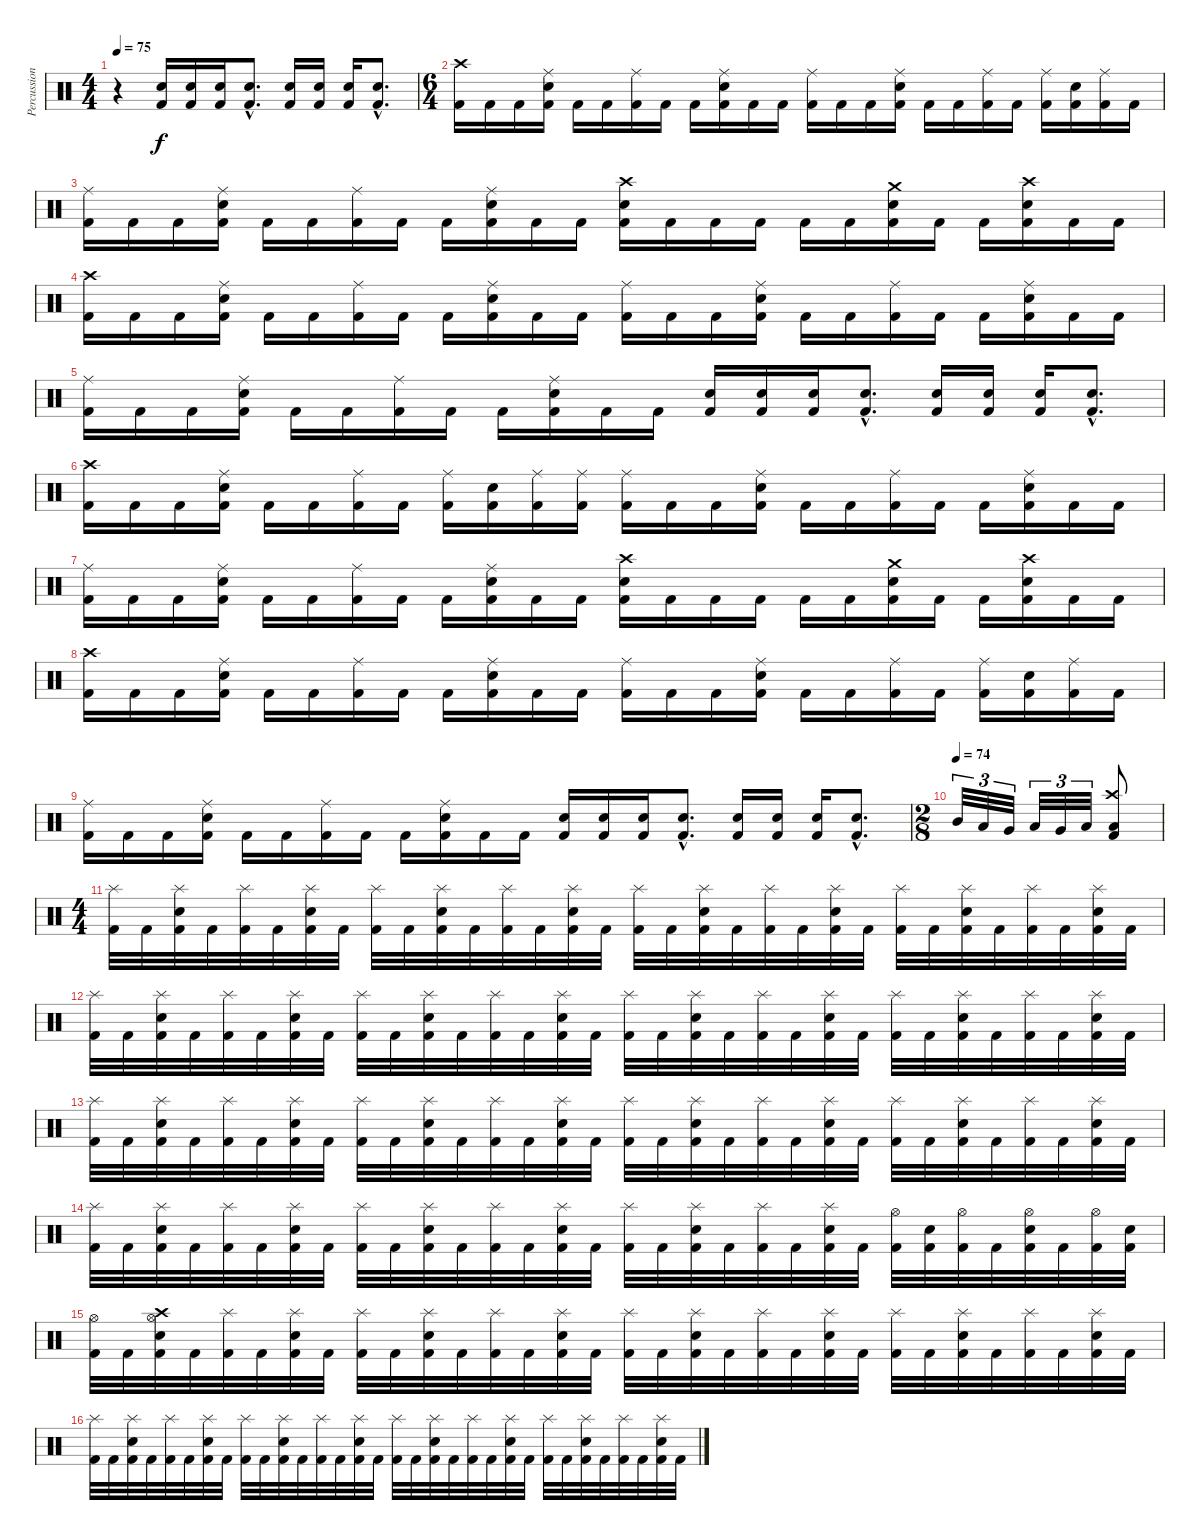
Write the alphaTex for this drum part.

\track ("Percussion" "Percussion") {instrument percussion}
\staff {score}
\articulation defaults
\ts (4 4)
\tempo 75
\tempo 140
\tempo 75
\clef neutral
\ks c
r.4{dy f} ("Snare (hit) 2" "Kick (hit) 2").16 ("Snare (hit) 2" "Kick (hit) 2").16 ("Snare (hit) 2" "Kick (hit) 2").16 ("Snare (hit) 2"{hac} "Kick (hit) 2"{hac}).8{d} ("Snare (hit) 2" "Kick (hit) 2").16 ("Snare (hit) 2" "Kick (hit) 2").16 ("Snare (hit) 2" "Kick (hit) 2").16 ("Snare (hit) 2"{hac} "Kick (hit) 2"{hac}).8{d} |
\ts (6 4)
("Crash high (hit)" "Kick (hit) 2").16 "Kick (hit) 2".16 "Kick (hit) 2".16 ("Ride (middle)" "Snare (hit) 2" "Kick (hit) 2").16 "Kick (hit) 2".16 "Kick (hit) 2".16 ("Ride (middle)" "Kick (hit) 2").16 "Kick (hit) 2".16 "Kick (hit) 2".16 ("Ride (middle)" "Snare (hit) 2" "Kick (hit) 2").16 "Kick (hit) 2".16 "Kick (hit) 2".16 ("Ride (middle)" "Kick (hit) 2").16 "Kick (hit) 2".16 "Kick (hit) 2".16 ("Ride (middle)" "Snare (hit) 2" "Kick (hit) 2").16 "Kick (hit) 2".16 "Kick (hit) 2".16 ("Ride (middle)" "Kick (hit) 2").16 "Kick (hit) 2".16 ("Ride (middle)" "Kick (hit) 2").16 ("Snare (hit) 2" "Kick (hit) 2").16 ("Ride (middle)" "Kick (hit) 2").16 "Kick (hit) 2".16 |
("Ride (middle)" "Kick (hit) 2").16 "Kick (hit) 2".16 "Kick (hit) 2".16 ("Ride (middle)" "Snare (hit) 2" "Kick (hit) 2").16 "Kick (hit) 2".16 "Kick (hit) 2".16 ("Ride (middle)" "Kick (hit) 2").16 "Kick (hit) 2".16 "Kick (hit) 2".16 ("Ride (middle)" "Snare (hit) 2" "Kick (hit) 2").16 "Kick (hit) 2".16 "Kick (hit) 2".16 ("Crash high (hit)" "Snare (hit) 2" "Kick (hit) 2").16 "Kick (hit) 2".16 "Kick (hit) 2".16 "Kick (hit) 2".16 "Kick (hit) 2".16 "Kick (hit) 2".16 ("Crash medium (hit)" "Snare (hit) 2" "Kick (hit) 2").16 "Kick (hit) 2".16 "Kick (hit) 2".16 ("Crash high (hit)" "Snare (hit) 2" "Kick (hit) 2").16 "Kick (hit) 2".16 "Kick (hit) 2".16 |
("Crash high (hit)" "Kick (hit) 2").16 "Kick (hit) 2".16 "Kick (hit) 2".16 ("Ride (middle)" "Snare (hit) 2" "Kick (hit) 2").16 "Kick (hit) 2".16 "Kick (hit) 2".16 ("Ride (middle)" "Kick (hit) 2").16 "Kick (hit) 2".16 "Kick (hit) 2".16 ("Ride (middle)" "Snare (hit) 2" "Kick (hit) 2").16 "Kick (hit) 2".16 "Kick (hit) 2".16 ("Ride (middle)" "Kick (hit) 2").16 "Kick (hit) 2".16 "Kick (hit) 2".16 ("Ride (middle)" "Snare (hit) 2" "Kick (hit) 2").16 "Kick (hit) 2".16 "Kick (hit) 2".16 ("Ride (middle)" "Kick (hit) 2").16 "Kick (hit) 2".16 "Kick (hit) 2".16 ("Ride (middle)" "Snare (hit) 2" "Kick (hit) 2").16 "Kick (hit) 2".16 "Kick (hit) 2".16 |
("Ride (middle)" "Kick (hit) 2").16 "Kick (hit) 2".16 "Kick (hit) 2".16 ("Ride (middle)" "Snare (hit) 2" "Kick (hit) 2").16 "Kick (hit) 2".16 "Kick (hit) 2".16 ("Ride (middle)" "Kick (hit) 2").16 "Kick (hit) 2".16 "Kick (hit) 2".16 ("Ride (middle)" "Snare (hit) 2" "Kick (hit) 2").16 "Kick (hit) 2".16 "Kick (hit) 2".16 ("Snare (hit) 2" "Kick (hit) 2").16 ("Snare (hit) 2" "Kick (hit) 2").16 ("Snare (hit) 2" "Kick (hit) 2").16 ("Snare (hit) 2"{hac} "Kick (hit) 2"{hac}).8{d} ("Snare (hit) 2" "Kick (hit) 2").16 ("Snare (hit) 2" "Kick (hit) 2").16 ("Snare (hit) 2" "Kick (hit) 2").16 ("Snare (hit) 2"{hac} "Kick (hit) 2"{hac}).8{d} |
("Crash high (hit)" "Kick (hit) 2").16 "Kick (hit) 2".16 "Kick (hit) 2".16 ("Ride (middle)" "Snare (hit) 2" "Kick (hit) 2").16 "Kick (hit) 2".16 "Kick (hit) 2".16 ("Ride (middle)" "Kick (hit) 2").16 "Kick (hit) 2".16 ("Ride (middle)" "Kick (hit) 2").16 ("Snare (hit) 2" "Kick (hit) 2").16 ("Ride (middle)" "Kick (hit) 2").16 ("Ride (middle)" "Kick (hit) 2").16 ("Ride (middle)" "Kick (hit) 2").16 "Kick (hit) 2".16 "Kick (hit) 2".16 ("Ride (middle)" "Snare (hit) 2" "Kick (hit) 2").16 "Kick (hit) 2".16 "Kick (hit) 2".16 ("Ride (middle)" "Kick (hit) 2").16 "Kick (hit) 2".16 "Kick (hit) 2".16 ("Ride (middle)" "Snare (hit) 2" "Kick (hit) 2").16 "Kick (hit) 2".16 "Kick (hit) 2".16 |
("Ride (middle)" "Kick (hit) 2").16 "Kick (hit) 2".16 "Kick (hit) 2".16 ("Ride (middle)" "Snare (hit) 2" "Kick (hit) 2").16 "Kick (hit) 2".16 "Kick (hit) 2".16 ("Ride (middle)" "Kick (hit) 2").16 "Kick (hit) 2".16 "Kick (hit) 2".16 ("Ride (middle)" "Snare (hit) 2" "Kick (hit) 2").16 "Kick (hit) 2".16 "Kick (hit) 2".16 ("Crash high (hit)" "Snare (hit) 2" "Kick (hit) 2").16 "Kick (hit) 2".16 "Kick (hit) 2".16 "Kick (hit) 2".16 "Kick (hit) 2".16 "Kick (hit) 2".16 ("Crash medium (hit)" "Snare (hit) 2" "Kick (hit) 2").16 "Kick (hit) 2".16 "Kick (hit) 2".16 ("Crash high (hit)" "Snare (hit) 2" "Kick (hit) 2").16 "Kick (hit) 2".16 "Kick (hit) 2".16 |
("Crash high (hit)" "Kick (hit) 2").16 "Kick (hit) 2".16 "Kick (hit) 2".16 ("Ride (middle)" "Snare (hit) 2" "Kick (hit) 2").16 "Kick (hit) 2".16 "Kick (hit) 2".16 ("Ride (middle)" "Kick (hit) 2").16 "Kick (hit) 2".16 "Kick (hit) 2".16 ("Ride (middle)" "Snare (hit) 2" "Kick (hit) 2").16 "Kick (hit) 2".16 "Kick (hit) 2".16 ("Ride (middle)" "Kick (hit) 2").16 "Kick (hit) 2".16 "Kick (hit) 2".16 ("Ride (middle)" "Snare (hit) 2" "Kick (hit) 2").16 "Kick (hit) 2".16 "Kick (hit) 2".16 ("Ride (middle)" "Kick (hit) 2").16 "Kick (hit) 2".16 ("Ride (middle)" "Kick (hit) 2").16 ("Snare (hit) 2" "Kick (hit) 2").16 ("Ride (middle)" "Kick (hit) 2").16 "Kick (hit) 2".16 |
("Ride (middle)" "Kick (hit) 2").16 "Kick (hit) 2".16 "Kick (hit) 2".16 ("Ride (middle)" "Snare (hit) 2" "Kick (hit) 2").16 "Kick (hit) 2".16 "Kick (hit) 2".16 ("Ride (middle)" "Kick (hit) 2").16 "Kick (hit) 2".16 "Kick (hit) 2".16 ("Ride (middle)" "Snare (hit) 2" "Kick (hit) 2").16 "Kick (hit) 2".16 "Kick (hit) 2".16 ("Snare (hit) 2" "Kick (hit) 2").16 ("Snare (hit) 2" "Kick (hit) 2").16 ("Snare (hit) 2" "Kick (hit) 2").16 ("Snare (hit) 2"{hac} "Kick (hit) 2"{hac}).8{d} ("Snare (hit) 2" "Kick (hit) 2").16 ("Snare (hit) 2" "Kick (hit) 2").16 ("Snare (hit) 2" "Kick (hit) 2").16 ("Snare (hit) 2"{hac} "Kick (hit) 2"{hac}).8{d} |
\ts (2 8)
\tempo (74)
"Mid Tom (hit)".32{tu (3 2)} "Low Tom (hit)".32{tu (3 2)} "Very Low Tom (hit)".32{tu (3 2)} "Low Tom (hit)".32{tu (3 2)} "Very Low Tom (hit)".32{tu (3 2)} "Low Floor Tom (hit)".32{tu (3 2)} ("Crash high (hit)" "Low Floor Tom (hit)" "Kick (hit) 2").8 |
\ts (4 4)
("Splash (hit)" "Kick (hit) 2").32 "Kick (hit) 2".32 ("Splash (hit)" "Snare (hit) 2" "Kick (hit) 2").32 "Kick (hit) 2".32 ("Splash (hit)" "Kick (hit) 2").32 "Kick (hit) 2".32 ("Splash (hit)" "Snare (hit) 2" "Kick (hit) 2").32 "Kick (hit) 2".32 ("Splash (hit)" "Kick (hit) 2").32 "Kick (hit) 2".32 ("Splash (hit)" "Snare (hit) 2" "Kick (hit) 2").32 "Kick (hit) 2".32 ("Splash (hit)" "Kick (hit) 2").32 "Kick (hit) 2".32 ("Splash (hit)" "Snare (hit) 2" "Kick (hit) 2").32 "Kick (hit) 2".32 ("Splash (hit)" "Kick (hit) 2").32 "Kick (hit) 2".32 ("Splash (hit)" "Snare (hit) 2" "Kick (hit) 2").32 "Kick (hit) 2".32 ("Splash (hit)" "Kick (hit) 2").32 "Kick (hit) 2".32 ("Splash (hit)" "Snare (hit) 2" "Kick (hit) 2").32 "Kick (hit) 2".32 ("Splash (hit)" "Kick (hit) 2").32 "Kick (hit) 2".32 ("Splash (hit)" "Snare (hit) 2" "Kick (hit) 2").32 "Kick (hit) 2".32 ("Splash (hit)" "Kick (hit) 2").32 "Kick (hit) 2".32 ("Splash (hit)" "Snare (hit) 2" "Kick (hit) 2").32 "Kick (hit) 2".32 |
("Splash (hit)" "Kick (hit) 2").32 "Kick (hit) 2".32 ("Splash (hit)" "Snare (hit) 2" "Kick (hit) 2").32 "Kick (hit) 2".32 ("Splash (hit)" "Kick (hit) 2").32 "Kick (hit) 2".32 ("Splash (hit)" "Snare (hit) 2" "Kick (hit) 2").32 "Kick (hit) 2".32 ("Splash (hit)" "Kick (hit) 2").32 "Kick (hit) 2".32 ("Splash (hit)" "Snare (hit) 2" "Kick (hit) 2").32 "Kick (hit) 2".32 ("Splash (hit)" "Kick (hit) 2").32 "Kick (hit) 2".32 ("Splash (hit)" "Snare (hit) 2" "Kick (hit) 2").32 "Kick (hit) 2".32 ("Splash (hit)" "Kick (hit) 2").32 "Kick (hit) 2".32 ("Splash (hit)" "Snare (hit) 2" "Kick (hit) 2").32 "Kick (hit) 2".32 ("Splash (hit)" "Kick (hit) 2").32 "Kick (hit) 2".32 ("Splash (hit)" "Snare (hit) 2" "Kick (hit) 2").32 "Kick (hit) 2".32 ("Splash (hit)" "Kick (hit) 2").32 "Kick (hit) 2".32 ("Splash (hit)" "Snare (hit) 2" "Kick (hit) 2").32 "Kick (hit) 2".32 ("Splash (hit)" "Kick (hit) 2").32 "Kick (hit) 2".32 ("Splash (hit)" "Snare (hit) 2" "Kick (hit) 2").32 "Kick (hit) 2".32 |
("Splash (hit)" "Kick (hit) 2").32 "Kick (hit) 2".32 ("Splash (hit)" "Snare (hit) 2" "Kick (hit) 2").32 "Kick (hit) 2".32 ("Splash (hit)" "Kick (hit) 2").32 "Kick (hit) 2".32 ("Splash (hit)" "Snare (hit) 2" "Kick (hit) 2").32 "Kick (hit) 2".32 ("Splash (hit)" "Kick (hit) 2").32 "Kick (hit) 2".32 ("Splash (hit)" "Snare (hit) 2" "Kick (hit) 2").32 "Kick (hit) 2".32 ("Splash (hit)" "Kick (hit) 2").32 "Kick (hit) 2".32 ("Splash (hit)" "Snare (hit) 2" "Kick (hit) 2").32 "Kick (hit) 2".32 ("Splash (hit)" "Kick (hit) 2").32 "Kick (hit) 2".32 ("Splash (hit)" "Snare (hit) 2" "Kick (hit) 2").32 "Kick (hit) 2".32 ("Splash (hit)" "Kick (hit) 2").32 "Kick (hit) 2".32 ("Splash (hit)" "Snare (hit) 2" "Kick (hit) 2").32 "Kick (hit) 2".32 ("Splash (hit)" "Kick (hit) 2").32 "Kick (hit) 2".32 ("Splash (hit)" "Snare (hit) 2" "Kick (hit) 2").32 "Kick (hit) 2".32 ("Splash (hit)" "Kick (hit) 2").32 "Kick (hit) 2".32 ("Splash (hit)" "Snare (hit) 2" "Kick (hit) 2").32 "Kick (hit) 2".32 |
("Splash (hit)" "Kick (hit) 2").32 "Kick (hit) 2".32 ("Splash (hit)" "Snare (hit) 2" "Kick (hit) 2").32 "Kick (hit) 2".32 ("Splash (hit)" "Kick (hit) 2").32 "Kick (hit) 2".32 ("Splash (hit)" "Snare (hit) 2" "Kick (hit) 2").32 "Kick (hit) 2".32 ("Splash (hit)" "Kick (hit) 2").32 "Kick (hit) 2".32 ("Splash (hit)" "Snare (hit) 2" "Kick (hit) 2").32 "Kick (hit) 2".32 ("Splash (hit)" "Kick (hit) 2").32 "Kick (hit) 2".32 ("Splash (hit)" "Snare (hit) 2" "Kick (hit) 2").32 "Kick (hit) 2".32 ("Splash (hit)" "Kick (hit) 2").32 "Kick (hit) 2".32 ("Splash (hit)" "Snare (hit) 2" "Kick (hit) 2").32 "Kick (hit) 2".32 ("Splash (hit)" "Kick (hit) 2").32 "Kick (hit) 2".32 ("Splash (hit)" "Snare (hit) 2" "Kick (hit) 2").32 "Kick (hit) 2".32 ("Hi-Hat (open)" "Kick (hit) 2").32 ("Snare (hit) 2" "Kick (hit) 2").32 ("Hi-Hat (open)" "Kick (hit) 2").32 "Kick (hit) 2".32 ("Hi-Hat (open)" "Snare (hit) 2" "Kick (hit) 2").32 "Kick (hit) 2".32 ("Hi-Hat (open)" "Kick (hit) 2").32 ("Snare (hit) 2" "Kick (hit) 2").32 |
("Hi-Hat (open)" "Kick (hit) 2").32 "Kick (hit) 2".32 ("Crash high (hit)" "Hi-Hat (open)" "Snare (hit) 2" "Kick (hit) 2").32 "Kick (hit) 2".32 ("Splash (hit)" "Kick (hit) 2").32 "Kick (hit) 2".32 ("Splash (hit)" "Snare (hit) 2" "Kick (hit) 2").32 "Kick (hit) 2".32 ("Splash (hit)" "Kick (hit) 2").32 "Kick (hit) 2".32 ("Splash (hit)" "Snare (hit) 2" "Kick (hit) 2").32 "Kick (hit) 2".32 ("Splash (hit)" "Kick (hit) 2").32 "Kick (hit) 2".32 ("Splash (hit)" "Snare (hit) 2" "Kick (hit) 2").32 "Kick (hit) 2".32 ("Splash (hit)" "Kick (hit) 2").32 "Kick (hit) 2".32 ("Splash (hit)" "Snare (hit) 2" "Kick (hit) 2").32 "Kick (hit) 2".32 ("Splash (hit)" "Kick (hit) 2").32 "Kick (hit) 2".32 ("Splash (hit)" "Snare (hit) 2" "Kick (hit) 2").32 "Kick (hit) 2".32 ("Splash (hit)" "Kick (hit) 2").32 "Kick (hit) 2".32 ("Splash (hit)" "Snare (hit) 2" "Kick (hit) 2").32 "Kick (hit) 2".32 ("Splash (hit)" "Kick (hit) 2").32 "Kick (hit) 2".32 ("Splash (hit)" "Snare (hit) 2" "Kick (hit) 2").32 "Kick (hit) 2".32 |
("Splash (hit)" "Kick (hit) 2").32 "Kick (hit) 2".32 ("Splash (hit)" "Snare (hit) 2" "Kick (hit) 2").32 "Kick (hit) 2".32 ("Splash (hit)" "Kick (hit) 2").32 "Kick (hit) 2".32 ("Splash (hit)" "Snare (hit) 2" "Kick (hit) 2").32 "Kick (hit) 2".32 ("Splash (hit)" "Kick (hit) 2").32 "Kick (hit) 2".32 ("Splash (hit)" "Snare (hit) 2" "Kick (hit) 2").32 "Kick (hit) 2".32 ("Splash (hit)" "Kick (hit) 2").32 "Kick (hit) 2".32 ("Splash (hit)" "Snare (hit) 2" "Kick (hit) 2").32 "Kick (hit) 2".32 ("Splash (hit)" "Kick (hit) 2").32 "Kick (hit) 2".32 ("Splash (hit)" "Snare (hit) 2" "Kick (hit) 2").32 "Kick (hit) 2".32 ("Splash (hit)" "Kick (hit) 2").32 "Kick (hit) 2".32 ("Splash (hit)" "Snare (hit) 2" "Kick (hit) 2").32 "Kick (hit) 2".32 ("Splash (hit)" "Kick (hit) 2").32 "Kick (hit) 2".32 ("Splash (hit)" "Snare (hit) 2" "Kick (hit) 2").32 "Kick (hit) 2".32 ("Splash (hit)" "Kick (hit) 2").32 "Kick (hit) 2".32 ("Splash (hit)" "Snare (hit) 2" "Kick (hit) 2").32 "Kick (hit) 2".32
